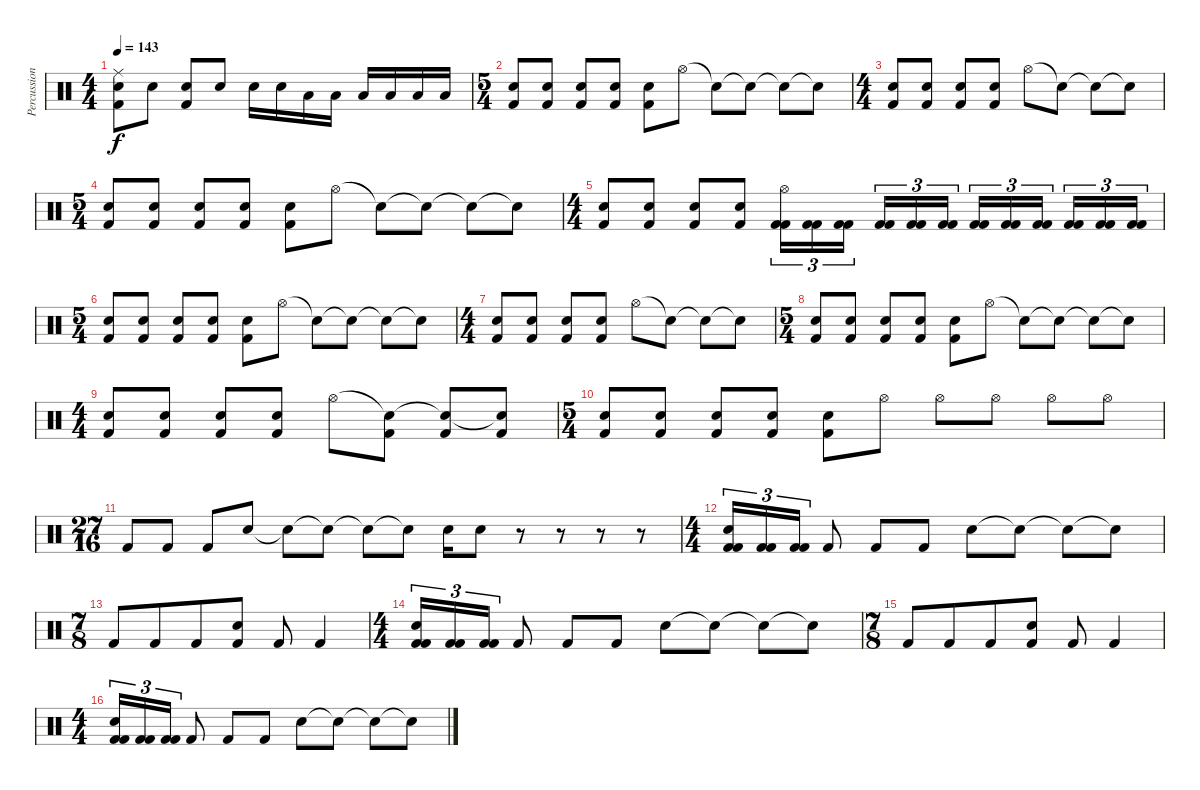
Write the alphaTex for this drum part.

\track ("Percussion" "Percussion") {instrument percussion}
\staff {score}
\articulation defaults
\ts (4 4)
\tempo 143
\clef neutral
\ks c
("Ride (middle)" "Electric Snare (hit)" "Kick (hit) 2").8{dy f} "Electric Snare (hit)".8 ("Electric Snare (hit)" "Kick (hit) 2").8 "Electric Snare (hit)".8 "Snare (hit) 2".16 "Snare (hit) 2".16 "Low Tom (hit)".16 "Low Tom (hit)".16 "Low Tom (hit)".16 "Low Tom (hit)".16 "Low Tom (hit)".16 "Low Tom (hit)".16 |
\ts (5 4)
("Electric Snare (hit)" "Kick (hit) 2").8 ("Electric Snare (hit)" "Kick (hit) 2").8 ("Electric Snare (hit)" "Kick (hit) 2").8 ("Electric Snare (hit)" "Kick (hit) 2").8 ("Electric Snare (hit)" "Kick (hit) 2").8 "Hi-Hat (open)".8 "Snare (hit)"{t}.8 "Snare (hit)"{t}.8 "Snare (hit)"{t}.8 "Snare (hit)"{t}.8 |
\ts (4 4)
("Electric Snare (hit)" "Kick (hit) 2").8 ("Electric Snare (hit)" "Kick (hit) 2").8 ("Electric Snare (hit)" "Kick (hit) 2").8 ("Electric Snare (hit)" "Kick (hit) 2").8 "Hi-Hat (open)".8 "Snare (hit)"{t}.8 "Snare (hit)"{t}.8 "Snare (hit)"{t}.8 |
\ts (5 4)
("Electric Snare (hit)" "Kick (hit) 2").8 ("Electric Snare (hit)" "Kick (hit) 2").8 ("Electric Snare (hit)" "Kick (hit) 2").8 ("Electric Snare (hit)" "Kick (hit) 2").8 ("Electric Snare (hit)" "Kick (hit) 2").8 "Hi-Hat (open)".8 "Snare (hit)"{t}.8 "Snare (hit)"{t}.8 "Snare (hit)"{t}.8 "Snare (hit)"{t}.8 |
\ts (4 4)
("Electric Snare (hit)" "Kick (hit) 2").8 ("Electric Snare (hit)" "Kick (hit) 2").8 ("Electric Snare (hit)" "Kick (hit) 2").8 ("Electric Snare (hit)" "Kick (hit) 2").8 ("Hi-Hat (open)" "Kick (hit) 2" "Kick (hit) 2").16{tu (3 2)} ("Kick (hit) 2" "Kick (hit) 2").16{tu (3 2)} ("Kick (hit) 2" "Kick (hit) 2").16{tu (3 2) beam splitsecondary} ("Kick (hit) 2" "Kick (hit) 2").16{tu (3 2)} ("Kick (hit) 2" "Kick (hit) 2").16{tu (3 2)} ("Kick (hit) 2" "Kick (hit) 2").16{tu (3 2)} ("Kick (hit) 2" "Kick (hit) 2").16{tu (3 2)} ("Kick (hit) 2" "Kick (hit) 2").16{tu (3 2)} ("Kick (hit) 2" "Kick (hit) 2").16{tu (3 2) beam splitsecondary} ("Kick (hit) 2" "Kick (hit) 2").16{tu (3 2)} ("Kick (hit) 2" "Kick (hit) 2").16{tu (3 2)} ("Kick (hit) 2" "Kick (hit) 2").16{tu (3 2)} |
\ts (5 4)
("Electric Snare (hit)" "Kick (hit) 2").8 ("Electric Snare (hit)" "Kick (hit) 2").8 ("Electric Snare (hit)" "Kick (hit) 2").8 ("Electric Snare (hit)" "Kick (hit) 2").8 ("Electric Snare (hit)" "Kick (hit) 2").8 "Hi-Hat (open)".8 "Snare (hit)"{t}.8 "Snare (hit)"{t}.8 "Snare (hit)"{t}.8 "Snare (hit)"{t}.8 |
\ts (4 4)
("Electric Snare (hit)" "Kick (hit) 2").8 ("Electric Snare (hit)" "Kick (hit) 2").8 ("Electric Snare (hit)" "Kick (hit) 2").8 ("Electric Snare (hit)" "Kick (hit) 2").8 "Hi-Hat (open)".8 "Snare (hit)"{t}.8 "Snare (hit)"{t}.8 "Snare (hit)"{t}.8 |
\ts (5 4)
("Electric Snare (hit)" "Kick (hit) 2").8 ("Electric Snare (hit)" "Kick (hit) 2").8 ("Electric Snare (hit)" "Kick (hit) 2").8 ("Electric Snare (hit)" "Kick (hit) 2").8 ("Electric Snare (hit)" "Kick (hit) 2").8 "Hi-Hat (open)".8 "Snare (hit)"{t}.8 "Snare (hit)"{t}.8 "Snare (hit)"{t}.8 "Snare (hit)"{t}.8 |
\ts (4 4)
("Electric Snare (hit)" "Kick (hit) 2").8 ("Electric Snare (hit)" "Kick (hit) 2").8 ("Electric Snare (hit)" "Kick (hit) 2").8 ("Electric Snare (hit)" "Kick (hit) 2").8 "Hi-Hat (open)".8 ("Snare (hit)"{t} "Kick (hit) 2").8 ("Snare (hit)"{t} "Kick (hit) 2").8 ("Snare (hit)"{t} "Kick (hit) 2").8 |
\ts (5 4)
("Electric Snare (hit)" "Kick (hit) 2").8 ("Electric Snare (hit)" "Kick (hit) 2").8 ("Electric Snare (hit)" "Kick (hit) 2").8 ("Electric Snare (hit)" "Kick (hit) 2").8 ("Electric Snare (hit)" "Kick (hit) 2").8 "Hi-Hat (open)".8 "Hi-Hat (open)".8 "Hi-Hat (open)".8 "Hi-Hat (open)".8 "Hi-Hat (open)".8 |
\ts (27 16)
"Kick (hit) 2".8 "Kick (hit) 2".8 "Kick (hit) 2".8 "Electric Snare (hit)".8 "Snare (hit)"{t}.8 "Snare (hit)"{t}.8 "Snare (hit)"{t}.8 "Snare (hit)"{t}.8 "Electric Snare (hit)".16 "Electric Snare (hit)".8 r.8 r.8 r.8 r.8 |
\ts (4 4)
("Electric Snare (hit)" "Kick (hit) 2" "Kick (hit) 2").16{tu (3 2)} ("Kick (hit) 2" "Kick (hit) 2").16{tu (3 2)} ("Kick (hit) 2" "Kick (hit) 2").16{tu (3 2)} "Kick (hit) 2".8 "Kick (hit) 2".8 "Kick (hit) 2".8 "Electric Snare (hit)".8 "Snare (hit)"{t}.8 "Snare (hit)"{t}.8 "Snare (hit)"{t}.8 |
\ts (7 8)
"Kick (hit) 2".8 "Kick (hit) 2".8 "Kick (hit) 2".8 ("Electric Snare (hit)" "Kick (hit) 2").8 "Kick (hit) 2".8 "Kick (hit) 2".4 |
\ts (4 4)
("Electric Snare (hit)" "Kick (hit) 2" "Kick (hit) 2").16{tu (3 2)} ("Kick (hit) 2" "Kick (hit) 2").16{tu (3 2)} ("Kick (hit) 2" "Kick (hit) 2").16{tu (3 2)} "Kick (hit) 2".8 "Kick (hit) 2".8 "Kick (hit) 2".8 "Electric Snare (hit)".8 "Snare (hit)"{t}.8 "Snare (hit)"{t}.8 "Snare (hit)"{t}.8 |
\ts (7 8)
"Kick (hit) 2".8 "Kick (hit) 2".8 "Kick (hit) 2".8 ("Electric Snare (hit)" "Kick (hit) 2").8 "Kick (hit) 2".8 "Kick (hit) 2".4 |
\ts (4 4)
("Electric Snare (hit)" "Kick (hit) 2" "Kick (hit) 2").16{tu (3 2)} ("Kick (hit) 2" "Kick (hit) 2").16{tu (3 2)} ("Kick (hit) 2" "Kick (hit) 2").16{tu (3 2)} "Kick (hit) 2".8 "Kick (hit) 2".8 "Kick (hit) 2".8 "Electric Snare (hit)".8 "Snare (hit)"{t}.8 "Snare (hit)"{t}.8 "Snare (hit)"{t}.8
